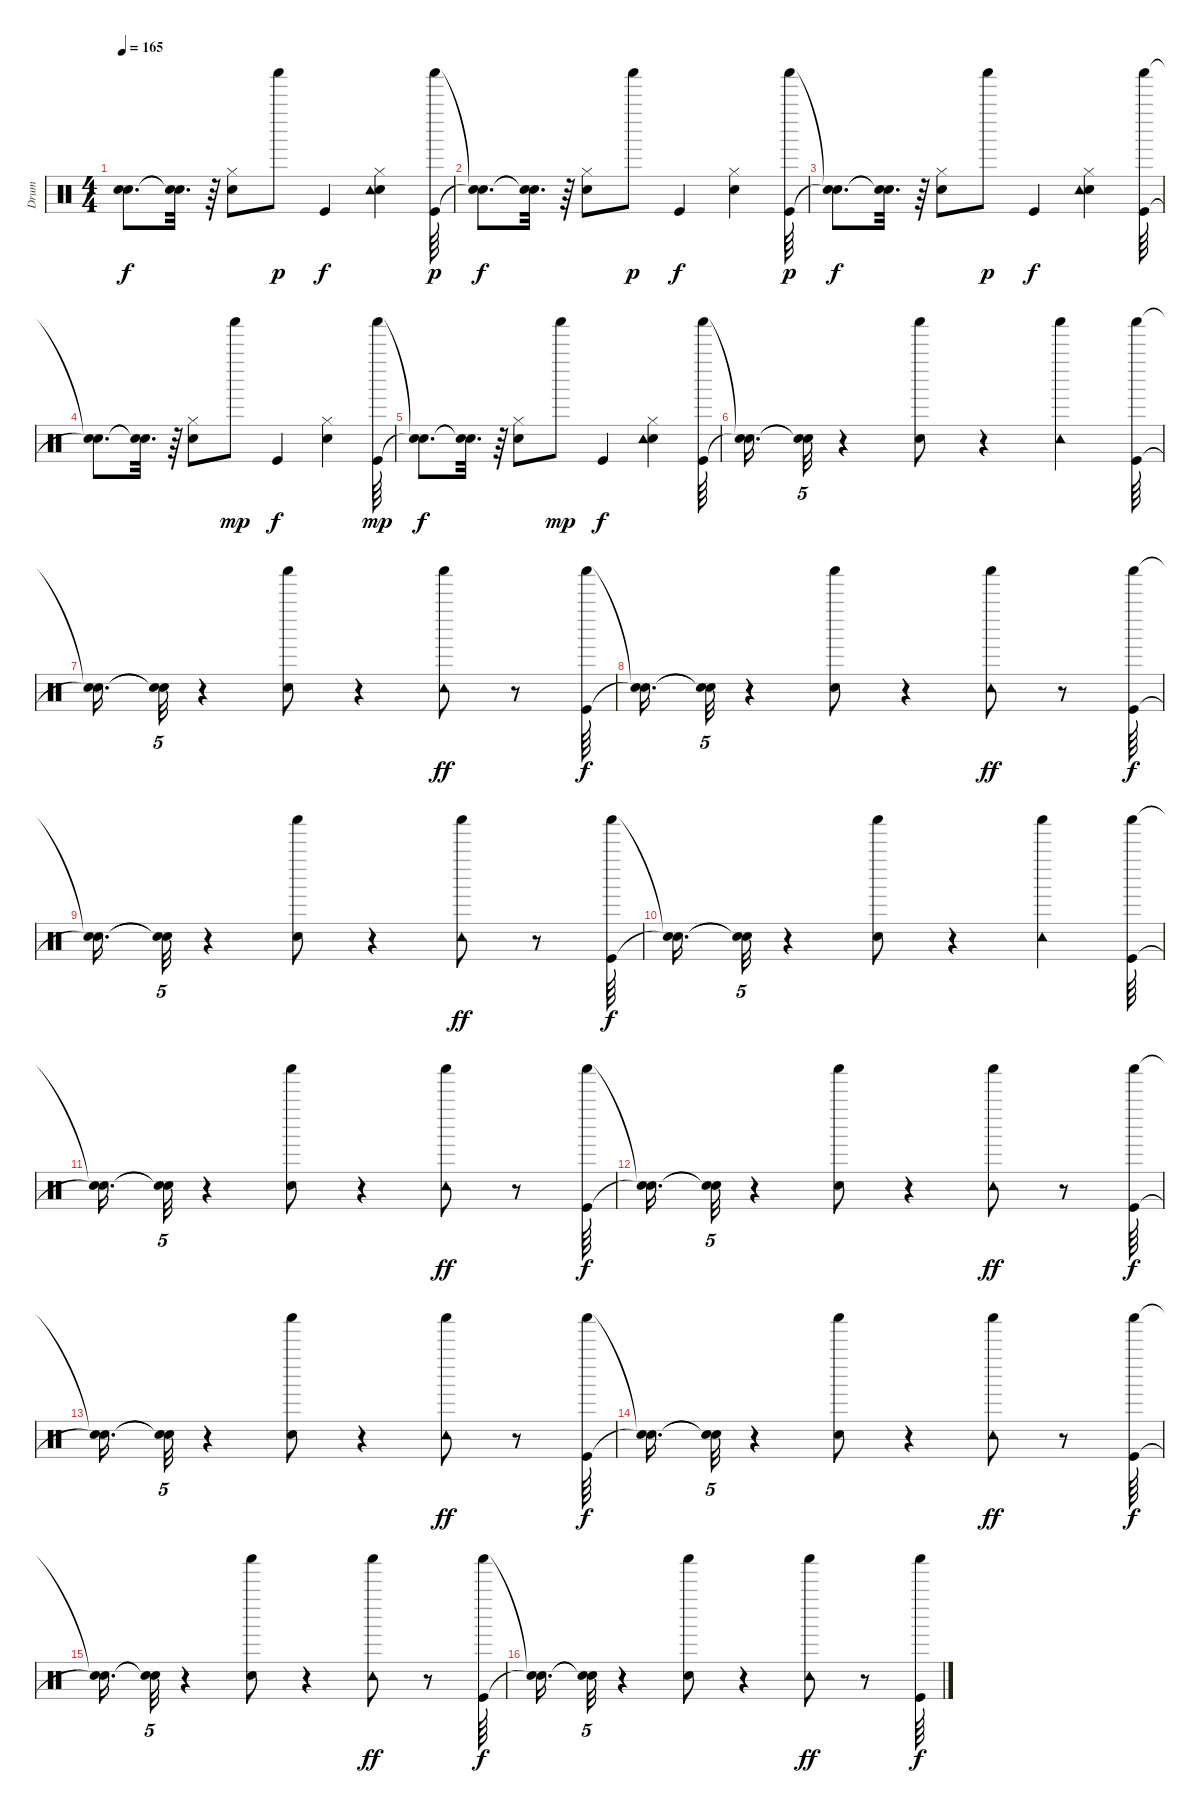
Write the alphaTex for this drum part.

\track ("Drum" "Drum") {instrument percussion}
\staff {score}
\articulation defaults
\ts (4 4)
\tempo 165
\clef neutral
\ks c
("Snare (hit)"{t} "Snare (hit)"{t}).8{d dy f} ("Snare (hit)"{t} "Snare (hit)"{t}).32{d} r.64 ("Electric Snare (hit)" "Hi-Hat (closed)").8 "Shaker (hit)".8{dy p} "Kick (hit)".4{dy f} ("Electric Snare (hit)" "Hi-Hat (closed)" "Tambourine (hit)").4 ("Kick (hit)" "Shaker (hit)").64{dy p} |
("Snare (hit)"{t} "Snare (hit)"{t}).8{d dy f} ("Snare (hit)"{t} "Snare (hit)"{t}).32{d} r.64 ("Electric Snare (hit)" "Hi-Hat (closed)").8 "Shaker (hit)".8{dy p} "Kick (hit)".4{dy f} ("Electric Snare (hit)" "Hi-Hat (closed)").4 ("Kick (hit)" "Shaker (hit)").64{dy p} |
("Snare (hit)"{t} "Snare (hit)"{t}).8{d dy f} ("Snare (hit)"{t} "Snare (hit)"{t}).32{d} r.64 ("Electric Snare (hit)" "Hi-Hat (closed)").8 "Shaker (hit)".8{dy p} "Kick (hit)".4{dy f} ("Electric Snare (hit)" "Hi-Hat (closed)" "Tambourine (hit)").4 ("Kick (hit)" "Shaker (hit)").64 |
("Snare (hit)"{t} "Snare (hit)"{t}).8{d} ("Snare (hit)"{t} "Snare (hit)"{t}).32{d} r.64 ("Electric Snare (hit)" "Hi-Hat (closed)").8 "Shaker (hit)".8{dy mp} "Kick (hit)".4{dy f} ("Electric Snare (hit)" "Hi-Hat (closed)").4 ("Kick (hit)" "Shaker (hit)").64{dy mp} |
("Snare (hit)"{t} "Snare (hit)"{t}).8{d dy f} ("Snare (hit)"{t} "Snare (hit)"{t}).32{d} r.64 ("Electric Snare (hit)" "Hi-Hat (closed)").8 "Shaker (hit)".8{dy mp} "Kick (hit)".4{dy f} ("Electric Snare (hit)" "Hi-Hat (closed)" "Tambourine (hit)").4 ("Kick (hit)" "Shaker (hit)").64 |
("Snare (hit)"{t} "Snare (hit)"{t}).16{d} ("Snare (hit)"{t} "Snare (hit)"{t}).32{tu (5 4)} r.4 ("Electric Snare (hit)" "Shaker (hit)").8 r.4 ("Shaker (hit)" "Tambourine (hit)").4 ("Kick (hit)" "Shaker (hit)").64 |
("Snare (hit)"{t} "Snare (hit)"{t}).16{d} ("Snare (hit)"{t} "Snare (hit)"{t}).32{tu (5 4)} r.4 ("Electric Snare (hit)" "Shaker (hit)").8 r.4 ("Shaker (hit)" "Tambourine (hit)").8{dy ff} r.8 ("Kick (hit)" "Shaker (hit)").64{dy f} |
("Snare (hit)"{t} "Snare (hit)"{t}).16{d} ("Snare (hit)"{t} "Snare (hit)"{t}).32{tu (5 4)} r.4 ("Electric Snare (hit)" "Shaker (hit)").8 r.4 ("Shaker (hit)" "Tambourine (hit)").8{dy ff} r.8 ("Kick (hit)" "Shaker (hit)").64{dy f} |
("Snare (hit)"{t} "Snare (hit)"{t}).16{d} ("Snare (hit)"{t} "Snare (hit)"{t}).32{tu (5 4)} r.4 ("Electric Snare (hit)" "Shaker (hit)").8 r.4 ("Shaker (hit)" "Tambourine (hit)").8{dy ff} r.8 ("Kick (hit)" "Shaker (hit)").64{dy f} |
("Snare (hit)"{t} "Snare (hit)"{t}).16{d} ("Snare (hit)"{t} "Snare (hit)"{t}).32{tu (5 4)} r.4 ("Electric Snare (hit)" "Shaker (hit)").8 r.4 ("Shaker (hit)" "Tambourine (hit)").4 ("Kick (hit)" "Shaker (hit)").64 |
("Snare (hit)"{t} "Snare (hit)"{t}).16{d} ("Snare (hit)"{t} "Snare (hit)"{t}).32{tu (5 4)} r.4 ("Electric Snare (hit)" "Shaker (hit)").8 r.4 ("Shaker (hit)" "Tambourine (hit)").8{dy ff} r.8 ("Kick (hit)" "Shaker (hit)").64{dy f} |
("Snare (hit)"{t} "Snare (hit)"{t}).16{d} ("Snare (hit)"{t} "Snare (hit)"{t}).32{tu (5 4)} r.4 ("Electric Snare (hit)" "Shaker (hit)").8 r.4 ("Shaker (hit)" "Tambourine (hit)").8{dy ff} r.8 ("Kick (hit)" "Shaker (hit)").64{dy f} |
("Snare (hit)"{t} "Snare (hit)"{t}).16{d} ("Snare (hit)"{t} "Snare (hit)"{t}).32{tu (5 4)} r.4 ("Electric Snare (hit)" "Shaker (hit)").8 r.4 ("Shaker (hit)" "Tambourine (hit)").8{dy ff} r.8 ("Kick (hit)" "Shaker (hit)").64{dy f} |
("Snare (hit)"{t} "Snare (hit)"{t}).16{d} ("Snare (hit)"{t} "Snare (hit)"{t}).32{tu (5 4)} r.4 ("Electric Snare (hit)" "Shaker (hit)").8 r.4 ("Shaker (hit)" "Tambourine (hit)").8{dy ff} r.8 ("Kick (hit)" "Shaker (hit)").64{dy f} |
("Snare (hit)"{t} "Snare (hit)"{t}).16{d} ("Snare (hit)"{t} "Snare (hit)"{t}).32{tu (5 4)} r.4 ("Electric Snare (hit)" "Shaker (hit)").8 r.4 ("Shaker (hit)" "Tambourine (hit)").8{dy ff} r.8 ("Kick (hit)" "Shaker (hit)").64{dy f} |
("Snare (hit)"{t} "Snare (hit)"{t}).16{d} ("Snare (hit)"{t} "Snare (hit)"{t}).32{tu (5 4)} r.4 ("Electric Snare (hit)" "Shaker (hit)").8 r.4 ("Shaker (hit)" "Tambourine (hit)").8{dy ff} r.8 ("Kick (hit)" "Shaker (hit)").64{dy f}
